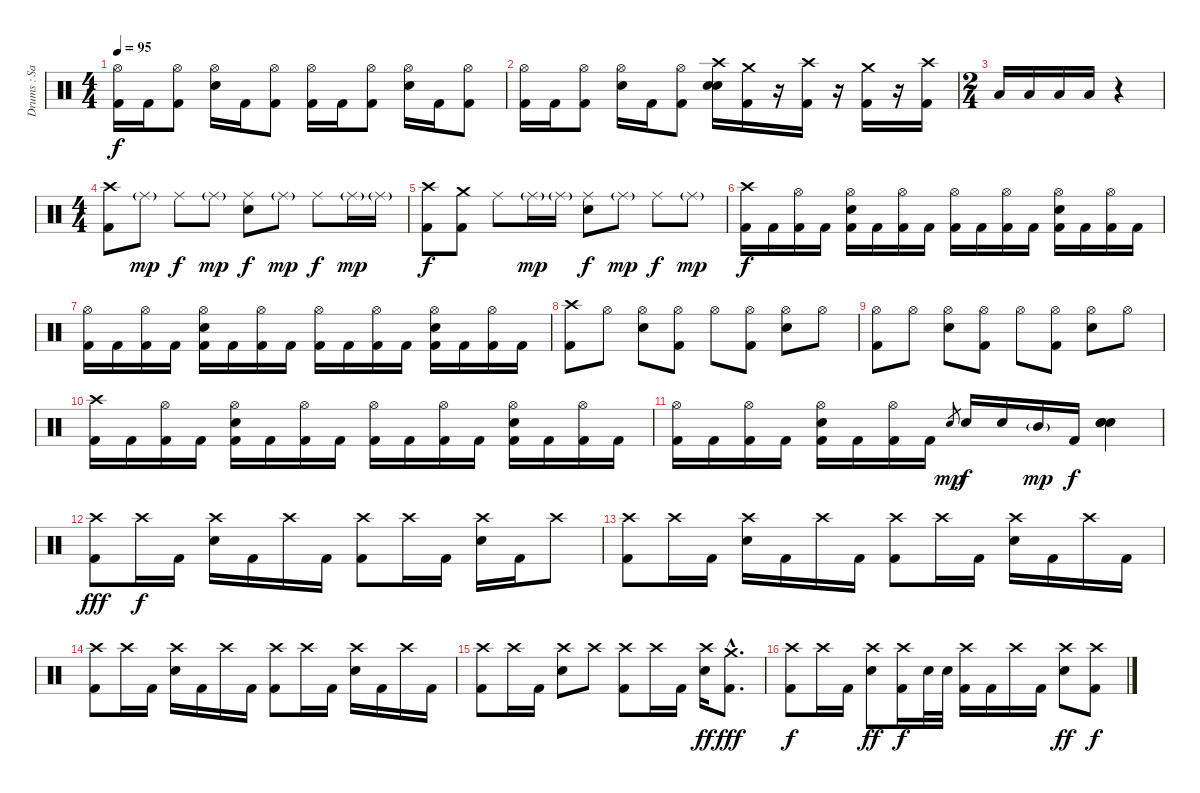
\track ("Drums : Sammy Siegler" "Drums : Sa") {instrument percussion}
\staff {score}
\articulation defaults
\ts (4 4)
\tempo 95
\clef neutral
\ks c
("Hi-Hat (open)" "Kick (hit) 2").16{dy f} "Kick (hit) 2".16 ("Hi-Hat (open)" "Kick (hit) 2").8 ("Hi-Hat (open)" "Electric Snare (hit)").16 "Kick (hit) 2".16 ("Hi-Hat (open)" "Kick (hit) 2").8 ("Hi-Hat (open)" "Kick (hit) 2").16 "Kick (hit) 2".16 ("Hi-Hat (open)" "Kick (hit) 2").8 ("Hi-Hat (open)" "Electric Snare (hit)").16 "Kick (hit) 2".16 ("Hi-Hat (open)" "Kick (hit) 2").8 |
("Hi-Hat (open)" "Kick (hit) 2").16 "Kick (hit) 2".16 ("Hi-Hat (open)" "Kick (hit) 2").8 ("Hi-Hat (open)" "Electric Snare (hit)").16 "Kick (hit) 2".16 ("Hi-Hat (open)" "Kick (hit) 2").8 ("Crash high (hit)" "Electric Snare (hit)" "Electric Snare (hit)").16 ("Crash medium (hit)" "Kick (hit) 2").16 r.16 ("Crash high (hit)" "Kick (hit) 2").16 r.16 ("Crash medium (hit)" "Kick (hit) 2").16 r.16 ("Crash high (hit)" "Kick (hit) 2").16 |
\ts (2 4)
"Low Floor Tom (hit)".16 "Low Tom (hit)".16 "Low Floor Tom (hit)".16 "Low Floor Tom (hit)".16 r.4 |
\ts (4 4)
("Crash high (hit)" "Kick (hit) 2").8 "Ride (middle)"{g}.8{dy mp} "Ride (middle)".8{dy f} "Ride (middle)"{g}.8{dy mp} ("Ride (middle)" "Electric Snare (hit)").8{dy f} "Ride (middle)"{g}.8{dy mp} "Ride (middle)".8{dy f} "Ride (middle)"{g}.16{dy mp} "Ride (middle)"{g}.16 |
("Crash high (hit)" "Kick (hit) 2").8{dy f} ("Crash medium (hit)" "Kick (hit) 2").8 "Ride (middle)".8 "Ride (middle)"{g}.16{dy mp} "Ride (middle)"{g}.16 ("Ride (middle)" "Electric Snare (hit)").8{dy f} "Ride (middle)"{g}.8{dy mp} "Ride (middle)".8{dy f} "Ride (middle)"{g}.8{dy mp} |
("Crash high (hit)" "Kick (hit) 2").16{dy f} "Kick (hit) 2".16 ("Hi-Hat (open)" "Kick (hit) 2").16 "Kick (hit) 2".16 ("Hi-Hat (open)" "Electric Snare (hit)" "Kick (hit) 2").16 "Kick (hit) 2".16 ("Hi-Hat (open)" "Kick (hit) 2").16 "Kick (hit) 2".16 ("Hi-Hat (open)" "Kick (hit) 2").16 "Kick (hit) 2".16 ("Hi-Hat (open)" "Kick (hit) 2").16 "Kick (hit) 2".16 ("Hi-Hat (open)" "Electric Snare (hit)" "Kick (hit) 2").16 "Kick (hit) 2".16 ("Hi-Hat (open)" "Kick (hit) 2").16 "Kick (hit) 2".16 |
("Hi-Hat (open)" "Kick (hit) 2").16 "Kick (hit) 2".16 ("Hi-Hat (open)" "Kick (hit) 2").16 "Kick (hit) 2".16 ("Hi-Hat (open)" "Electric Snare (hit)" "Kick (hit) 2").16 "Kick (hit) 2".16 ("Hi-Hat (open)" "Kick (hit) 2").16 "Kick (hit) 2".16 ("Hi-Hat (open)" "Kick (hit) 2").16 "Kick (hit) 2".16 ("Hi-Hat (open)" "Kick (hit) 2").16 "Kick (hit) 2".16 ("Hi-Hat (open)" "Electric Snare (hit)" "Kick (hit) 2").16 "Kick (hit) 2".16 ("Hi-Hat (open)" "Kick (hit) 2").16 "Kick (hit) 2".16 |
("Crash high (hit)" "Kick (hit) 2").8 "Hi-Hat (open)".8 ("Hi-Hat (open)" "Electric Snare (hit)").8 ("Hi-Hat (open)" "Kick (hit) 2").8 "Hi-Hat (open)".8 ("Hi-Hat (open)" "Kick (hit) 2").8 ("Hi-Hat (open)" "Electric Snare (hit)").8 "Hi-Hat (open)".8 |
("Hi-Hat (open)" "Kick (hit) 2").8 "Hi-Hat (open)".8 ("Hi-Hat (open)" "Electric Snare (hit)").8 ("Hi-Hat (open)" "Kick (hit) 2").8 "Hi-Hat (open)".8 ("Hi-Hat (open)" "Kick (hit) 2").8 ("Hi-Hat (open)" "Electric Snare (hit)").8 "Hi-Hat (open)".8 |
("Crash high (hit)" "Kick (hit) 2").16 "Kick (hit) 2".16 ("Hi-Hat (open)" "Kick (hit) 2").16 "Kick (hit) 2".16 ("Hi-Hat (open)" "Electric Snare (hit)" "Kick (hit) 2").16 "Kick (hit) 2".16 ("Hi-Hat (open)" "Kick (hit) 2").16 "Kick (hit) 2".16 ("Hi-Hat (open)" "Kick (hit) 2").16 "Kick (hit) 2".16 ("Hi-Hat (open)" "Kick (hit) 2").16 "Kick (hit) 2".16 ("Hi-Hat (open)" "Electric Snare (hit)" "Kick (hit) 2").16 "Kick (hit) 2".16 ("Hi-Hat (open)" "Kick (hit) 2").16 "Kick (hit) 2".16 |
("Hi-Hat (open)" "Kick (hit) 2").16 "Kick (hit) 2".16 ("Hi-Hat (open)" "Kick (hit) 2").16 "Kick (hit) 2".16 ("Hi-Hat (open)" "Electric Snare (hit)" "Kick (hit) 2").16 "Kick (hit) 2".16 ("Hi-Hat (open)" "Kick (hit) 2").16 "Kick (hit) 2".16 "Electric Snare (hit)"{sl}.8{gr dy mp} "Electric Snare (hit)".16{dy f} "Electric Snare (hit)".16 "Mid Tom (hit)"{g}.16{dy mp} "Kick (hit) 2".16{dy f} ("Snare (hit) 2" "Electric Snare (hit)" "Electric Snare (hit)").4 |
("Crash high (hit)" "Kick (hit) 2").8{dy fff} "Crash high (hit)".16{dy f} "Kick (hit) 2".16 ("Crash high (hit)" "Electric Snare (hit)").16 "Kick (hit) 2".16 "Crash high (hit)".16 "Kick (hit) 2".16 ("Crash high (hit)" "Kick (hit) 2").8 "Crash high (hit)".16 "Kick (hit) 2".16 ("Crash high (hit)" "Electric Snare (hit)").16 "Kick (hit) 2".16 "Crash high (hit)".8 |
("Crash high (hit)" "Kick (hit) 2").8 "Crash high (hit)".16 "Kick (hit) 2".16 ("Crash high (hit)" "Electric Snare (hit)").16 "Kick (hit) 2".16 "Crash high (hit)".16 "Kick (hit) 2".16 ("Crash high (hit)" "Kick (hit) 2").8 "Crash high (hit)".16 "Kick (hit) 2".16 ("Crash high (hit)" "Electric Snare (hit)").16 "Kick (hit) 2".16 "Crash high (hit)".16 "Kick (hit) 2".16 |
("Crash high (hit)" "Kick (hit) 2").8 "Crash high (hit)".16 "Kick (hit) 2".16 ("Crash high (hit)" "Electric Snare (hit)").16 "Kick (hit) 2".16 "Crash high (hit)".16 "Kick (hit) 2".16 ("Crash high (hit)" "Kick (hit) 2").8 "Crash high (hit)".16 "Kick (hit) 2".16 ("Crash high (hit)" "Electric Snare (hit)").16 "Kick (hit) 2".16 "Crash high (hit)".16 "Kick (hit) 2".16 |
("Crash high (hit)" "Kick (hit) 2").8 "Crash high (hit)".16 "Kick (hit) 2".16 ("Crash high (hit)" "Electric Snare (hit)").8 "Crash high (hit)".8 ("Crash high (hit)" "Kick (hit) 2").8 "Crash high (hit)".16 "Kick (hit) 2".16 ("Crash high (hit)" "Electric Snare (hit)").16{dy ff} ("Crash medium (hit)"{hac} "Kick (hit) 2"{hac}).8{d dy fff} |
("Crash high (hit)" "Kick (hit) 2").8{dy f} "Crash high (hit)".16 "Kick (hit) 2".16 ("Crash high (hit)" "Electric Snare (hit)").8{dy ff} ("Crash high (hit)" "Kick (hit) 2").16{dy f} "Electric Snare (hit)".32 "Electric Snare (hit)".32 ("Crash high (hit)" "Kick (hit) 2").16 "Kick (hit) 2".16 "Crash high (hit)".16 "Kick (hit) 2".16 ("Crash high (hit)" "Electric Snare (hit)").8{dy ff} ("Crash high (hit)" "Kick (hit) 2").8{dy f}
